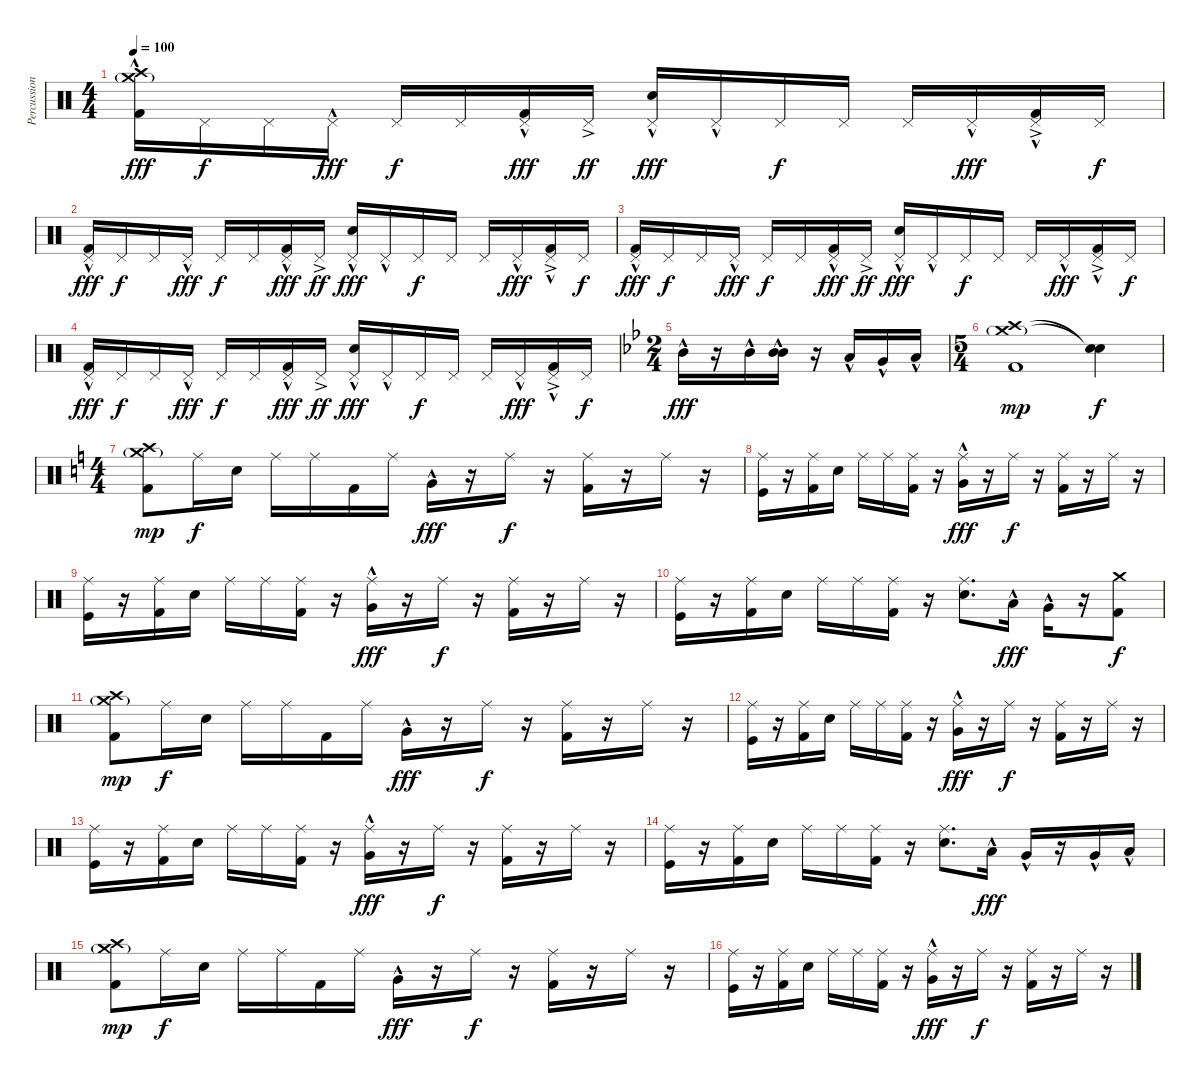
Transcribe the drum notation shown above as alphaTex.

\track ("Percussion" "Percussion") {instrument percussion}
\staff {score}
\articulation defaults
\ts (4 4)
\tempo 100
\clef neutral
\ks c
("Crash high (hit)" "Crash medium (hit)"{g} "Kick (hit) 2"{hac}).16{dy fff} "Pedal Hi-Hat (hit)".16{dy f} "Pedal Hi-Hat (hit)".16 "Pedal Hi-Hat (hit)"{hac}.16{dy fff} "Pedal Hi-Hat (hit)".16{dy f} "Pedal Hi-Hat (hit)".16 ("Pedal Hi-Hat (hit)" "Kick (hit) 2"{hac}).16{dy fff} "Pedal Hi-Hat (hit)"{ac}.16{dy ff} ("Pedal Hi-Hat (hit)" "Electric Snare (hit)"{hac}).16{dy fff} "Pedal Hi-Hat (hit)"{hac}.16 "Pedal Hi-Hat (hit)".16{dy f} "Pedal Hi-Hat (hit)".16 "Pedal Hi-Hat (hit)".16 "Pedal Hi-Hat (hit)"{hac}.16{dy fff} ("Pedal Hi-Hat (hit)"{ac} "Kick (hit) 2"{hac}).16 "Pedal Hi-Hat (hit)".16{dy f} |
("Pedal Hi-Hat (hit)" "Kick (hit) 2"{hac}).16{dy fff} "Pedal Hi-Hat (hit)".16{dy f} "Pedal Hi-Hat (hit)".16 "Pedal Hi-Hat (hit)"{hac}.16{dy fff} "Pedal Hi-Hat (hit)".16{dy f} "Pedal Hi-Hat (hit)".16 ("Pedal Hi-Hat (hit)" "Kick (hit) 2"{hac}).16{dy fff} "Pedal Hi-Hat (hit)"{ac}.16{dy ff} ("Pedal Hi-Hat (hit)" "Electric Snare (hit)"{hac}).16{dy fff} "Pedal Hi-Hat (hit)"{hac}.16 "Pedal Hi-Hat (hit)".16{dy f} "Pedal Hi-Hat (hit)".16 "Pedal Hi-Hat (hit)".16 "Pedal Hi-Hat (hit)"{hac}.16{dy fff} ("Pedal Hi-Hat (hit)"{ac} "Kick (hit) 2"{hac}).16 "Pedal Hi-Hat (hit)".16{dy f} |
("Pedal Hi-Hat (hit)" "Kick (hit) 2"{hac}).16{dy fff} "Pedal Hi-Hat (hit)".16{dy f} "Pedal Hi-Hat (hit)".16 "Pedal Hi-Hat (hit)"{hac}.16{dy fff} "Pedal Hi-Hat (hit)".16{dy f} "Pedal Hi-Hat (hit)".16 ("Pedal Hi-Hat (hit)" "Kick (hit) 2"{hac}).16{dy fff} "Pedal Hi-Hat (hit)"{ac}.16{dy ff} ("Pedal Hi-Hat (hit)" "Electric Snare (hit)"{hac}).16{dy fff} "Pedal Hi-Hat (hit)"{hac}.16 "Pedal Hi-Hat (hit)".16{dy f} "Pedal Hi-Hat (hit)".16 "Pedal Hi-Hat (hit)".16 "Pedal Hi-Hat (hit)"{hac}.16{dy fff} ("Pedal Hi-Hat (hit)"{ac} "Kick (hit) 2"{hac}).16 "Pedal Hi-Hat (hit)".16{dy f} |
("Pedal Hi-Hat (hit)" "Kick (hit) 2"{hac}).16{dy fff} "Pedal Hi-Hat (hit)".16{dy f} "Pedal Hi-Hat (hit)".16 "Pedal Hi-Hat (hit)"{hac}.16{dy fff} "Pedal Hi-Hat (hit)".16{dy f} "Pedal Hi-Hat (hit)".16 ("Pedal Hi-Hat (hit)" "Kick (hit) 2"{hac}).16{dy fff} "Pedal Hi-Hat (hit)"{ac}.16{dy ff} ("Pedal Hi-Hat (hit)" "Electric Snare (hit)"{hac}).16{dy fff} "Pedal Hi-Hat (hit)"{hac}.16 "Pedal Hi-Hat (hit)".16{dy f} "Pedal Hi-Hat (hit)".16 "Pedal Hi-Hat (hit)".16 "Pedal Hi-Hat (hit)"{hac}.16{dy fff} ("Pedal Hi-Hat (hit)"{ac} "Kick (hit) 2"{hac}).16 "Pedal Hi-Hat (hit)".16{dy f} |
\ts (2 4)
\ks bb "Mid Tom (hit)"{hac}.16{dy fff}
r.16 "Mid Tom (hit)"{hac}.16 ("Mid Tom (hit)"{hac} "Mid Tom (hit)"{hac}).16 r.16 "Low Tom (hit)"{hac}.16 "Very Low Tom (hit)"{hac}.16 "Low Floor Tom (hit)"{hac}.16 |
\ts (5 4)
("Crash high (hit)" "Crash medium (hit)"{g} "Kick (hit) 2").1{dy mp} ("Snare (hit)"{t} "Snare (hit)"{t}).4{dy f} |
\ts (4 4)
\ks c
("Crash high (hit)" "Crash medium (hit)"{g} "Kick (hit) 2").8{dy mp} "Ride (middle)".16{dy f} "Electric Snare (hit)".16 "Ride (middle)".16 "Ride (middle)".16 "Kick (hit) 2".16 "Ride (middle)".16 "Very Low Tom (hit)"{hac}.16{dy fff} r.16 "Ride (middle)".16{dy f} r.16 ("Ride (middle)" "Kick (hit) 2").16 r.16 "Ride (middle)".16 r.16 |
("Ride (middle)" "Kick (hit)").16 r.16 ("Ride (middle)" "Kick (hit) 2").16 "Electric Snare (hit)".16 "Ride (middle)".16 "Ride (middle)".16 ("Ride (middle)" "Kick (hit) 2").16 r.16 ("Ride (middle)" "Very Low Tom (hit)"{hac}).16{dy fff} r.16 "Ride (middle)".16{dy f} r.16 ("Ride (middle)" "Kick (hit) 2").16 r.16 "Ride (middle)".16 r.16 |
("Ride (middle)" "Kick (hit)").16 r.16 ("Ride (middle)" "Kick (hit) 2").16 "Electric Snare (hit)".16 "Ride (middle)".16 "Ride (middle)".16 ("Ride (middle)" "Kick (hit) 2").16 r.16 ("Ride (middle)" "Very Low Tom (hit)"{hac}).16{dy fff} r.16 "Ride (middle)".16{dy f} r.16 ("Ride (middle)" "Kick (hit) 2").16 r.16 "Ride (middle)".16 r.16 |
("Ride (middle)" "Kick (hit)").16 r.16 ("Ride (middle)" "Kick (hit) 2").16 "Electric Snare (hit)".16 "Ride (middle)".16 "Ride (middle)".16 ("Ride (middle)" "Kick (hit) 2").16 r.16 ("Ride (middle)" "Electric Snare (hit)").8{d} "Low Tom (hit)"{hac}.16{dy fff} "Very Low Tom (hit)"{hac}.16 r.16 ("Crash medium (hit)" "Kick (hit) 2").8{dy f} |
("Crash high (hit)" "Crash medium (hit)"{g} "Kick (hit) 2").8{dy mp} "Ride (middle)".16{dy f} "Electric Snare (hit)".16 "Ride (middle)".16 "Ride (middle)".16 "Kick (hit) 2".16 "Ride (middle)".16 "Very Low Tom (hit)"{hac}.16{dy fff} r.16 "Ride (middle)".16{dy f} r.16 ("Ride (middle)" "Kick (hit) 2").16 r.16 "Ride (middle)".16 r.16 |
("Ride (middle)" "Kick (hit)").16 r.16 ("Ride (middle)" "Kick (hit) 2").16 "Electric Snare (hit)".16 "Ride (middle)".16 "Ride (middle)".16 ("Ride (middle)" "Kick (hit) 2").16 r.16 ("Ride (middle)" "Very Low Tom (hit)"{hac}).16{dy fff} r.16 "Ride (middle)".16{dy f} r.16 ("Ride (middle)" "Kick (hit) 2").16 r.16 "Ride (middle)".16 r.16 |
("Ride (middle)" "Kick (hit)").16 r.16 ("Ride (middle)" "Kick (hit) 2").16 "Electric Snare (hit)".16 "Ride (middle)".16 "Ride (middle)".16 ("Ride (middle)" "Kick (hit) 2").16 r.16 ("Ride (middle)" "Very Low Tom (hit)"{hac}).16{dy fff} r.16 "Ride (middle)".16{dy f} r.16 ("Ride (middle)" "Kick (hit) 2").16 r.16 "Ride (middle)".16 r.16 |
("Ride (middle)" "Kick (hit)").16 r.16 ("Ride (middle)" "Kick (hit) 2").16 "Electric Snare (hit)".16 "Ride (middle)".16 "Ride (middle)".16 ("Ride (middle)" "Kick (hit) 2").16 r.16 ("Ride (middle)" "Electric Snare (hit)").8{d} "Low Tom (hit)"{hac}.16{dy fff} "Very Low Tom (hit)"{hac}.16 r.16 "Very Low Tom (hit)"{hac}.16 "Low Floor Tom (hit)"{hac}.16 |
("Crash high (hit)" "Crash medium (hit)"{g} "Kick (hit) 2").8{dy mp} "Ride (middle)".16{dy f} "Electric Snare (hit)".16 "Ride (middle)".16 "Ride (middle)".16 "Kick (hit) 2".16 "Ride (middle)".16 "Very Low Tom (hit)"{hac}.16{dy fff} r.16 "Ride (middle)".16{dy f} r.16 ("Ride (middle)" "Kick (hit) 2").16 r.16 "Ride (middle)".16 r.16 |
("Ride (middle)" "Kick (hit)").16 r.16 ("Ride (middle)" "Kick (hit) 2").16 "Electric Snare (hit)".16 "Ride (middle)".16 "Ride (middle)".16 ("Ride (middle)" "Kick (hit) 2").16 r.16 ("Ride (middle)" "Very Low Tom (hit)"{hac}).16{dy fff} r.16 "Ride (middle)".16{dy f} r.16 ("Ride (middle)" "Kick (hit) 2").16 r.16 "Ride (middle)".16 r.16
